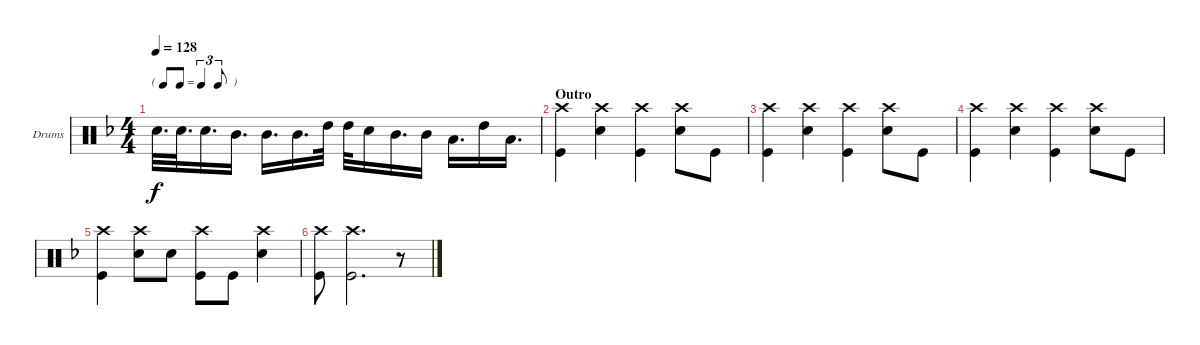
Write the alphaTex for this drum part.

\defaultSystemsLayout 4
\bracketExtendMode groupsimilarinstruments
\firstSystemTrackNameOrientation horizontal
\otherSystemsTrackNameOrientation horizontal
\track ("Drumkit" "Drums") {instrument percussion}
\staff {score}
\articulation defaults
\ts (4 4)
\tf triplet8th
\tempo 128
\clef neutral
\scale
0.333333
\ks f "Snare (hit) 2".32{d dy f} "Snare (hit) 2".32{d} "Snare (hit) 2".16{d} "Mid Tom (hit)".16{d} "Mid Tom (hit)".16{d} "Mid Tom (hit)".16{d} "High Tom (hit)".32 "High Tom (hit)".32 "Snare (hit) 2".16 "Mid Tom (hit)".16{d} "Mid Tom (hit)".16 "Low Tom (hit)".16{d} "High Tom (hit)".16 "Low Tom (hit)".16{d}
|
\section ("" "Outro")
\scale
0.333333 ("Kick (hit)" "Crash high (hit)").4 ("Snare (hit) 2" "Crash high (hit)").4 ("Kick (hit)" "Crash high (hit)").4 ("Snare (hit) 2" "Crash high (hit)").8 "Kick (hit)".8 |
\scale
0.333333 ("Kick (hit)" "Crash high (hit)").4 ("Snare (hit) 2" "Crash high (hit)").4 ("Kick (hit)" "Crash high (hit)").4 ("Snare (hit) 2" "Crash high (hit)").8 "Kick (hit)".8 |
\scale
0.333333 ("Kick (hit)" "Crash high (hit)").4 ("Snare (hit) 2" "Crash high (hit)").4 ("Kick (hit)" "Crash high (hit)").4 ("Snare (hit) 2" "Crash high (hit)").8 "Kick (hit)".8 |
("Kick (hit)" "Crash high (hit)").4 ("Snare (hit) 2" "Crash high (hit)").8 "Snare (hit) 2".8 ("Crash high (hit)" "Kick (hit)").8 "Kick (hit)".8 ("Snare (hit) 2" "Crash high (hit)").4 |
("Crash high (hit)" "Kick (hit)").8 ("Crash high (hit)" "Kick (hit)").2{d} r.8
